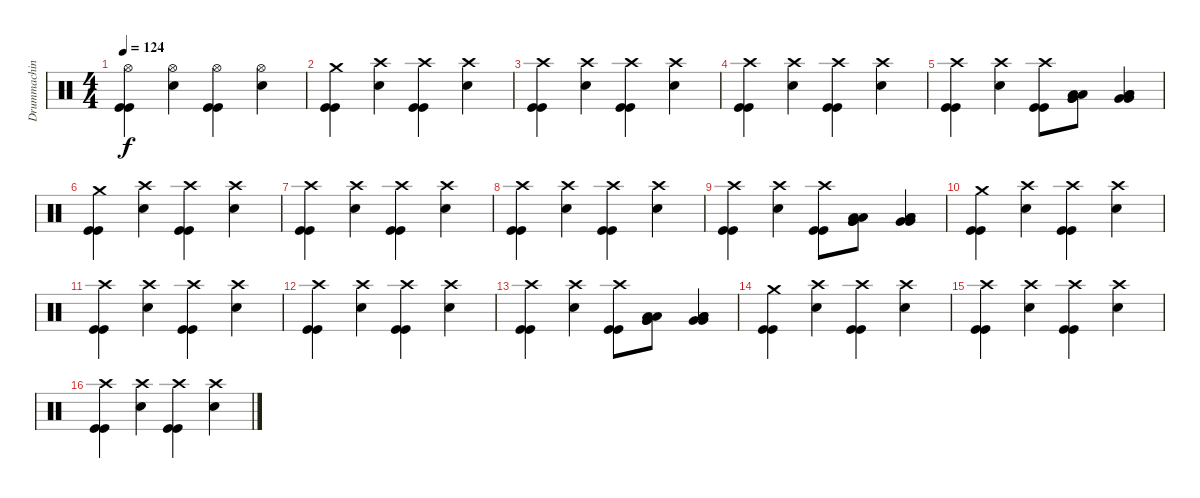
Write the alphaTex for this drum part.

\track ("Drummachine" "Drummachin") {instrument percussion}
\staff {score}
\articulation defaults
\ts (4 4)
\tempo 124
\clef neutral
\ks c
("Hi-Hat (open)" "Kick (hit)" "Kick (hit)").4{dy f} ("Hi-Hat (open)" "Snare (hit) 2").4 ("Hi-Hat (open)" "Kick (hit)" "Kick (hit)").4 ("Hi-Hat (open)" "Snare (hit) 2").4 |
("Crash medium (hit)" "Kick (hit)" "Kick (hit)").4 ("Crash high (hit)" "Snare (hit) 2").4 ("Crash high (hit)" "Kick (hit)" "Kick (hit)").4 ("Crash high (hit)" "Snare (hit) 2").4 |
("Crash high (hit)" "Kick (hit)" "Kick (hit)").4 ("Crash high (hit)" "Snare (hit) 2").4 ("Crash high (hit)" "Kick (hit)" "Kick (hit)").4 ("Crash high (hit)" "Snare (hit) 2").4 |
("Crash high (hit)" "Kick (hit)" "Kick (hit)").4 ("Crash high (hit)" "Snare (hit) 2").4 ("Crash high (hit)" "Kick (hit)" "Kick (hit)").4 ("Crash high (hit)" "Snare (hit) 2").4 |
("Crash high (hit)" "Kick (hit)" "Kick (hit)").4 ("Crash high (hit)" "Snare (hit) 2").4 ("Crash high (hit)" "Kick (hit)" "Kick (hit)").8 ("Low Tom (hit)" "Low Tom (hit)" "Very Low Tom (hit)" "Very Low Tom (hit)").8 ("Low Tom (hit)" "Low Tom (hit)" "Very Low Tom (hit)" "Very Low Tom (hit)").4 |
("Crash medium (hit)" "Kick (hit)" "Kick (hit)").4 ("Crash high (hit)" "Snare (hit) 2").4 ("Crash high (hit)" "Kick (hit)" "Kick (hit)").4 ("Crash high (hit)" "Snare (hit) 2").4 |
("Crash high (hit)" "Kick (hit)" "Kick (hit)").4 ("Crash high (hit)" "Snare (hit) 2").4 ("Crash high (hit)" "Kick (hit)" "Kick (hit)").4 ("Crash high (hit)" "Snare (hit) 2").4 |
("Crash high (hit)" "Kick (hit)" "Kick (hit)").4 ("Crash high (hit)" "Snare (hit) 2").4 ("Crash high (hit)" "Kick (hit)" "Kick (hit)").4 ("Crash high (hit)" "Snare (hit) 2").4 |
("Crash high (hit)" "Kick (hit)" "Kick (hit)").4 ("Crash high (hit)" "Snare (hit) 2").4 ("Crash high (hit)" "Kick (hit)" "Kick (hit)").8 ("Low Tom (hit)" "Low Tom (hit)" "Very Low Tom (hit)" "Very Low Tom (hit)").8 ("Low Tom (hit)" "Low Tom (hit)" "Very Low Tom (hit)" "Very Low Tom (hit)").4 |
("Crash medium (hit)" "Kick (hit)" "Kick (hit)").4 ("Crash high (hit)" "Snare (hit) 2").4 ("Crash high (hit)" "Kick (hit)" "Kick (hit)").4 ("Crash high (hit)" "Snare (hit) 2").4 |
("Crash high (hit)" "Kick (hit)" "Kick (hit)").4 ("Crash high (hit)" "Snare (hit) 2").4 ("Crash high (hit)" "Kick (hit)" "Kick (hit)").4 ("Crash high (hit)" "Snare (hit) 2").4 |
("Crash high (hit)" "Kick (hit)" "Kick (hit)").4 ("Crash high (hit)" "Snare (hit) 2").4 ("Crash high (hit)" "Kick (hit)" "Kick (hit)").4 ("Crash high (hit)" "Snare (hit) 2").4 |
("Crash high (hit)" "Kick (hit)" "Kick (hit)").4 ("Crash high (hit)" "Snare (hit) 2").4 ("Crash high (hit)" "Kick (hit)" "Kick (hit)").8 ("Low Tom (hit)" "Low Tom (hit)" "Very Low Tom (hit)" "Very Low Tom (hit)").8 ("Low Tom (hit)" "Low Tom (hit)" "Very Low Tom (hit)" "Very Low Tom (hit)").4 |
("Crash medium (hit)" "Kick (hit)" "Kick (hit)").4 ("Crash high (hit)" "Snare (hit) 2").4 ("Crash high (hit)" "Kick (hit)" "Kick (hit)").4 ("Crash high (hit)" "Snare (hit) 2").4 |
("Crash high (hit)" "Kick (hit)" "Kick (hit)").4 ("Crash high (hit)" "Snare (hit) 2").4 ("Crash high (hit)" "Kick (hit)" "Kick (hit)").4 ("Crash high (hit)" "Snare (hit) 2").4 |
("Crash high (hit)" "Kick (hit)" "Kick (hit)").4 ("Crash high (hit)" "Snare (hit) 2").4 ("Crash high (hit)" "Kick (hit)" "Kick (hit)").4 ("Crash high (hit)" "Snare (hit) 2").4
